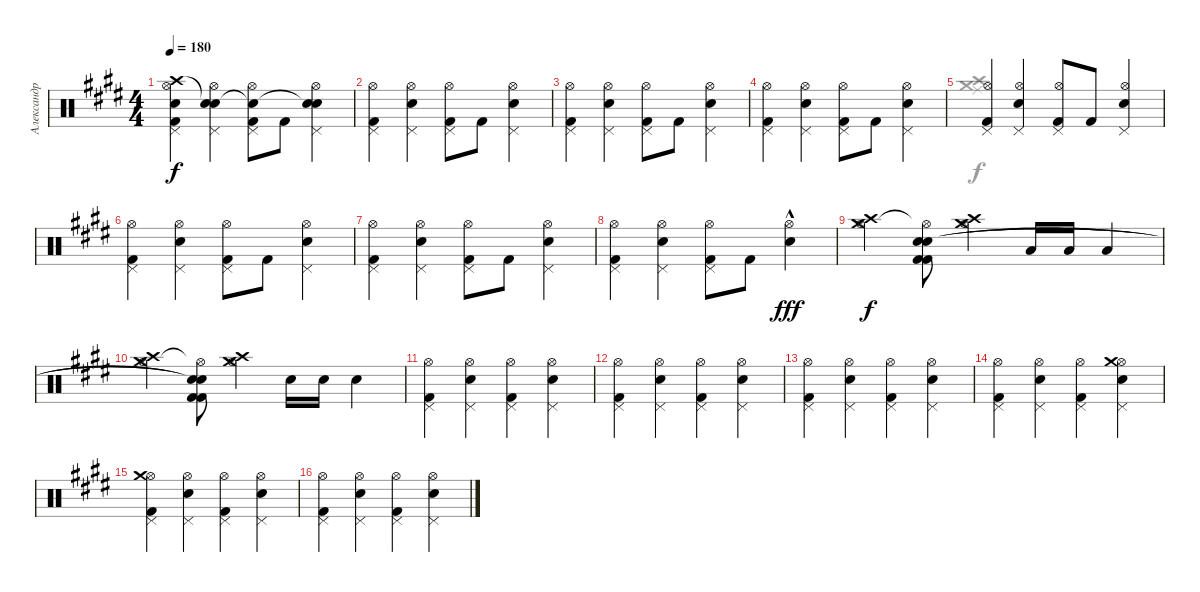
\track ("Александр Новиков" "Александр ") {instrument percussion}
\staff {score}
\articulation defaults
\voice
\ts (4 4)
\tempo 180
\clef neutral
\ks c#minor
("Hi-Hat (open)" "Kick (hit) 2" "Pedal Hi-Hat (hit)" "Crash high (hit)" "Snare (hit)").4{dy f} ("Hi-Hat (open)" "Electric Snare (hit)" "Pedal Hi-Hat (hit)" "Snare (hit)"{t}).4 ("Hi-Hat (open)" "Kick (hit) 2" "Pedal Hi-Hat (hit)" "Snare (hit)"{t}).8 "Kick (hit) 2".8 ("Hi-Hat (open)" "Electric Snare (hit)" "Pedal Hi-Hat (hit)" "Snare (hit)"{t}).4 |
("Hi-Hat (open)" "Kick (hit) 2" "Pedal Hi-Hat (hit)").4 ("Hi-Hat (open)" "Electric Snare (hit)" "Pedal Hi-Hat (hit)").4 ("Hi-Hat (open)" "Kick (hit) 2" "Pedal Hi-Hat (hit)").8 "Kick (hit) 2".8 ("Hi-Hat (open)" "Electric Snare (hit)" "Pedal Hi-Hat (hit)").4 |
("Hi-Hat (open)" "Kick (hit) 2" "Pedal Hi-Hat (hit)").4 ("Hi-Hat (open)" "Electric Snare (hit)" "Pedal Hi-Hat (hit)").4 ("Hi-Hat (open)" "Kick (hit) 2" "Pedal Hi-Hat (hit)").8 "Kick (hit) 2".8 ("Hi-Hat (open)" "Electric Snare (hit)" "Pedal Hi-Hat (hit)").4 |
("Hi-Hat (open)" "Kick (hit) 2" "Pedal Hi-Hat (hit)").4 ("Hi-Hat (open)" "Electric Snare (hit)" "Pedal Hi-Hat (hit)").4 ("Hi-Hat (open)" "Kick (hit) 2" "Pedal Hi-Hat (hit)").8 "Kick (hit) 2".8 ("Hi-Hat (open)" "Electric Snare (hit)" "Pedal Hi-Hat (hit)").4 |
("Hi-Hat (open)" "Kick (hit) 2" "Pedal Hi-Hat (hit)").4 ("Hi-Hat (open)" "Electric Snare (hit)" "Pedal Hi-Hat (hit)").4 ("Hi-Hat (open)" "Kick (hit) 2" "Pedal Hi-Hat (hit)").8 "Kick (hit) 2".8 ("Hi-Hat (open)" "Electric Snare (hit)" "Pedal Hi-Hat (hit)").4 |
("Hi-Hat (open)" "Kick (hit) 2" "Pedal Hi-Hat (hit)").4 ("Hi-Hat (open)" "Electric Snare (hit)" "Pedal Hi-Hat (hit)").4 ("Hi-Hat (open)" "Kick (hit) 2" "Pedal Hi-Hat (hit)").8 "Kick (hit) 2".8 ("Hi-Hat (open)" "Electric Snare (hit)" "Pedal Hi-Hat (hit)").4 |
("Hi-Hat (open)" "Kick (hit) 2" "Pedal Hi-Hat (hit)").4 ("Hi-Hat (open)" "Electric Snare (hit)" "Pedal Hi-Hat (hit)").4 ("Hi-Hat (open)" "Kick (hit) 2" "Pedal Hi-Hat (hit)").8 "Kick (hit) 2".8 ("Hi-Hat (open)" "Electric Snare (hit)" "Pedal Hi-Hat (hit)").4 |
("Hi-Hat (open)" "Kick (hit) 2" "Pedal Hi-Hat (hit)").4 ("Hi-Hat (open)" "Electric Snare (hit)" "Pedal Hi-Hat (hit)").4 ("Hi-Hat (open)" "Kick (hit) 2" "Pedal Hi-Hat (hit)").8 "Kick (hit) 2".8 ("Hi-Hat (open)"{hac} "Electric Snare (hit)").4{dy fff} |
("Hi-Hat (open)" "Crash medium (hit)" "Crash high (hit)").4{dy f} ("Hi-Hat (open)"{t} "Kick (hit) 2" "Kick (hit) 2" "Snare (hit)" "Snare (hit)").8 ("Hi-Hat (open)" "Crash medium (hit)" "Crash high (hit)").4 "Low Tom (hit)".16 "Low Tom (hit)".16 "Low Tom (hit)".4 |
("Hi-Hat (open)" "Crash medium (hit)" "Crash high (hit)").4 ("Hi-Hat (open)"{t} "Kick (hit) 2" "Kick (hit) 2" "Snare (hit)"{t} "Snare (hit)"{t}).8 ("Hi-Hat (open)" "Crash medium (hit)" "Crash high (hit)").4 "Electric Snare (hit)".16 "Electric Snare (hit)".16 "Electric Snare (hit)".4 |
("Hi-Hat (open)" "Pedal Hi-Hat (hit)" "Kick (hit) 2").4 ("Hi-Hat (open)" "Pedal Hi-Hat (hit)" "Electric Snare (hit)").4 ("Hi-Hat (open)" "Pedal Hi-Hat (hit)" "Kick (hit) 2").4 ("Hi-Hat (open)" "Pedal Hi-Hat (hit)" "Electric Snare (hit)").4 |
("Hi-Hat (open)" "Pedal Hi-Hat (hit)" "Kick (hit) 2").4 ("Hi-Hat (open)" "Pedal Hi-Hat (hit)" "Electric Snare (hit)").4 ("Hi-Hat (open)" "Pedal Hi-Hat (hit)" "Kick (hit) 2").4 ("Hi-Hat (open)" "Pedal Hi-Hat (hit)" "Electric Snare (hit)").4 |
("Hi-Hat (open)" "Pedal Hi-Hat (hit)" "Kick (hit) 2").4 ("Hi-Hat (open)" "Pedal Hi-Hat (hit)" "Electric Snare (hit)").4 ("Hi-Hat (open)" "Pedal Hi-Hat (hit)" "Kick (hit) 2").4 ("Hi-Hat (open)" "Pedal Hi-Hat (hit)" "Electric Snare (hit)").4 |
("Hi-Hat (open)" "Pedal Hi-Hat (hit)" "Kick (hit) 2").4 ("Hi-Hat (open)" "Pedal Hi-Hat (hit)" "Electric Snare (hit)").4 ("Hi-Hat (open)" "Pedal Hi-Hat (hit)" "Kick (hit) 2").4 ("Hi-Hat (open)" "Pedal Hi-Hat (hit)" "Electric Snare (hit)" "Crash medium (hit)").4 |
("Hi-Hat (open)" "Pedal Hi-Hat (hit)" "Kick (hit) 2" "Crash medium (hit)").4 ("Hi-Hat (open)" "Pedal Hi-Hat (hit)" "Electric Snare (hit)").4 ("Hi-Hat (open)" "Pedal Hi-Hat (hit)" "Kick (hit) 2").4 ("Hi-Hat (open)" "Pedal Hi-Hat (hit)" "Electric Snare (hit)").4 |
("Hi-Hat (open)" "Pedal Hi-Hat (hit)" "Kick (hit) 2").4 ("Hi-Hat (open)" "Pedal Hi-Hat (hit)" "Electric Snare (hit)").4 ("Hi-Hat (open)" "Pedal Hi-Hat (hit)" "Kick (hit) 2").4 ("Hi-Hat (open)" "Pedal Hi-Hat (hit)" "Electric Snare (hit)").4
\voice
\clef neutral
\ottava regular
\simile none
\ks c#minor
|
|
|
|
("Crash high (hit)" "Crash medium (hit)" "Ride (middle)").1 |
|
|
|
|
|
|
|
|
|
|
